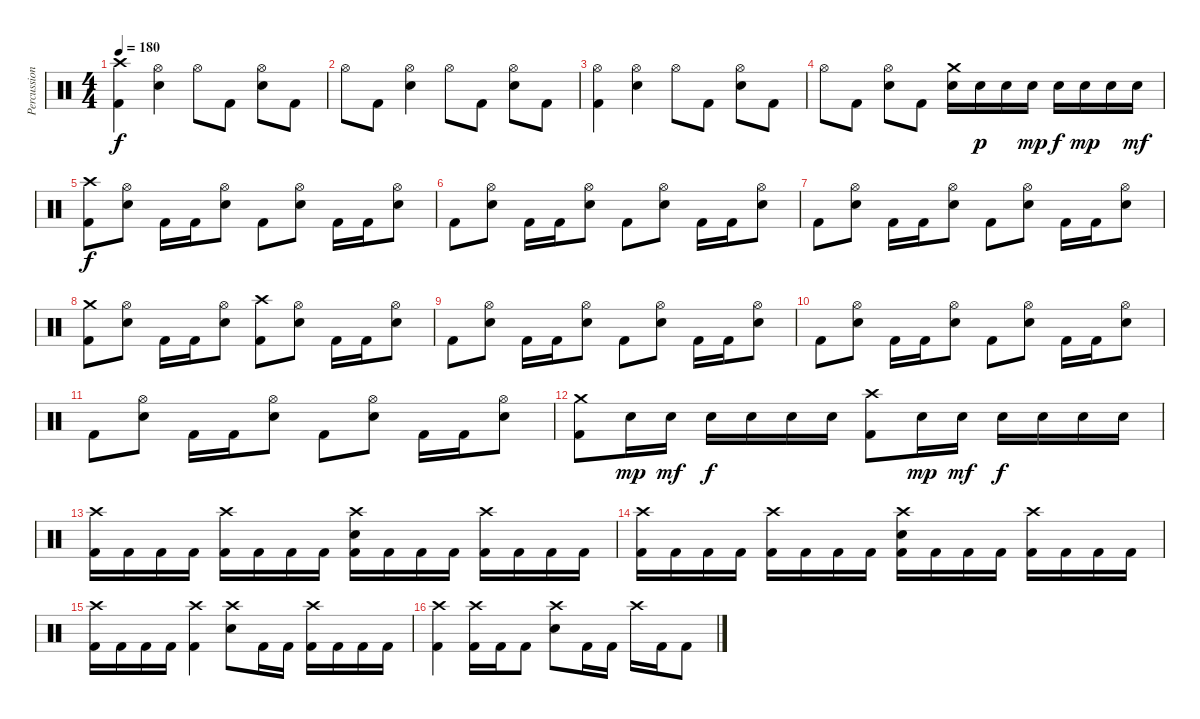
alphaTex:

\track ("Percussion" "Percussion") {instrument percussion}
\staff {score}
\articulation defaults
\ts (4 4)
\tempo 180
\clef neutral
\ks c
("Crash high (hit)" "Kick (hit) 2").4{dy f} ("Hi-Hat (open)" "Electric Snare (hit)").4 "Hi-Hat (open)".8 "Kick (hit) 2".8 ("Hi-Hat (open)" "Electric Snare (hit)").8 "Kick (hit) 2".8 |
"Hi-Hat (open)".8 "Kick (hit) 2".8 ("Hi-Hat (open)" "Electric Snare (hit)").4 "Hi-Hat (open)".8 "Kick (hit) 2".8 ("Hi-Hat (open)" "Electric Snare (hit)").8 "Kick (hit) 2".8 |
("Hi-Hat (open)" "Kick (hit) 2").4 ("Hi-Hat (open)" "Electric Snare (hit)").4 "Hi-Hat (open)".8 "Kick (hit) 2".8 ("Hi-Hat (open)" "Electric Snare (hit)").8 "Kick (hit) 2".8 |
"Hi-Hat (open)".8 "Kick (hit) 2".8 ("Hi-Hat (open)" "Electric Snare (hit)").8 "Kick (hit) 2".8 ("Crash medium (hit)" "Electric Snare (hit)").16 "Electric Snare (hit)".16{dy p} "Electric Snare (hit)".16 "Electric Snare (hit)".16{dy mp} "Electric Snare (hit)".16{dy f} "Electric Snare (hit)".16{dy mp} "Electric Snare (hit)".16 "Electric Snare (hit)".16{dy mf} |
("Crash high (hit)" "Kick (hit) 2").8{dy f} ("Hi-Hat (open)" "Electric Snare (hit)").8 "Kick (hit) 2".16 "Kick (hit) 2".16 ("Hi-Hat (open)" "Electric Snare (hit)").8 "Kick (hit) 2".8 ("Hi-Hat (open)" "Electric Snare (hit)").8 "Kick (hit) 2".16 "Kick (hit) 2".16 ("Hi-Hat (open)" "Electric Snare (hit)").8 |
"Kick (hit) 2".8 ("Hi-Hat (open)" "Electric Snare (hit)").8 "Kick (hit) 2".16 "Kick (hit) 2".16 ("Hi-Hat (open)" "Electric Snare (hit)").8 "Kick (hit) 2".8 ("Hi-Hat (open)" "Electric Snare (hit)").8 "Kick (hit) 2".16 "Kick (hit) 2".16 ("Hi-Hat (open)" "Electric Snare (hit)").8 |
"Kick (hit) 2".8 ("Hi-Hat (open)" "Electric Snare (hit)").8 "Kick (hit) 2".16 "Kick (hit) 2".16 ("Hi-Hat (open)" "Electric Snare (hit)").8 "Kick (hit) 2".8 ("Hi-Hat (open)" "Electric Snare (hit)").8 "Kick (hit) 2".16 "Kick (hit) 2".16 ("Hi-Hat (open)" "Electric Snare (hit)").8 |
("Crash medium (hit)" "Kick (hit) 2").8 ("Hi-Hat (open)" "Electric Snare (hit)").8 "Kick (hit) 2".16 "Kick (hit) 2".16 ("Hi-Hat (open)" "Electric Snare (hit)").8 ("Crash high (hit)" "Kick (hit) 2").8 ("Hi-Hat (open)" "Electric Snare (hit)").8 "Kick (hit) 2".16 "Kick (hit) 2".16 ("Hi-Hat (open)" "Electric Snare (hit)").8 |
"Kick (hit) 2".8 ("Hi-Hat (open)" "Electric Snare (hit)").8 "Kick (hit) 2".16 "Kick (hit) 2".16 ("Hi-Hat (open)" "Electric Snare (hit)").8 "Kick (hit) 2".8 ("Hi-Hat (open)" "Electric Snare (hit)").8 "Kick (hit) 2".16 "Kick (hit) 2".16 ("Hi-Hat (open)" "Electric Snare (hit)").8 |
"Kick (hit) 2".8 ("Hi-Hat (open)" "Electric Snare (hit)").8 "Kick (hit) 2".16 "Kick (hit) 2".16 ("Hi-Hat (open)" "Electric Snare (hit)").8 "Kick (hit) 2".8 ("Hi-Hat (open)" "Electric Snare (hit)").8 "Kick (hit) 2".16 "Kick (hit) 2".16 ("Hi-Hat (open)" "Electric Snare (hit)").8 |
"Kick (hit) 2".8 ("Hi-Hat (open)" "Electric Snare (hit)").8 "Kick (hit) 2".16 "Kick (hit) 2".16 ("Hi-Hat (open)" "Electric Snare (hit)").8 "Kick (hit) 2".8 ("Hi-Hat (open)" "Electric Snare (hit)").8 "Kick (hit) 2".16 "Kick (hit) 2".16 ("Hi-Hat (open)" "Electric Snare (hit)").8 |
("Crash medium (hit)" "Kick (hit) 2").8 "Electric Snare (hit)".16{dy mp} "Electric Snare (hit)".16{dy mf} "Electric Snare (hit)".16{dy f} "Electric Snare (hit)".16 "Electric Snare (hit)".16 "Electric Snare (hit)".16 ("Crash high (hit)" "Kick (hit) 2").8 "Electric Snare (hit)".16{dy mp} "Electric Snare (hit)".16{dy mf} "Electric Snare (hit)".16{dy f} "Electric Snare (hit)".16 "Electric Snare (hit)".16 "Electric Snare (hit)".16 |
("Crash high (hit)" "Kick (hit) 2").16 "Kick (hit) 2".16 "Kick (hit) 2".16 "Kick (hit) 2".16 ("Crash high (hit)" "Kick (hit) 2").16 "Kick (hit) 2".16 "Kick (hit) 2".16 "Kick (hit) 2".16 ("Crash high (hit)" "Electric Snare (hit)" "Kick (hit) 2").16 "Kick (hit) 2".16 "Kick (hit) 2".16 "Kick (hit) 2".16 ("Crash high (hit)" "Kick (hit) 2").16 "Kick (hit) 2".16 "Kick (hit) 2".16 "Kick (hit) 2".16 |
("Crash high (hit)" "Kick (hit) 2").16 "Kick (hit) 2".16 "Kick (hit) 2".16 "Kick (hit) 2".16 ("Crash high (hit)" "Kick (hit) 2").16 "Kick (hit) 2".16 "Kick (hit) 2".16 "Kick (hit) 2".16 ("Crash high (hit)" "Electric Snare (hit)" "Kick (hit) 2").16 "Kick (hit) 2".16 "Kick (hit) 2".16 "Kick (hit) 2".16 ("Crash high (hit)" "Kick (hit) 2").16 "Kick (hit) 2".16 "Kick (hit) 2".16 "Kick (hit) 2".16 |
("Crash high (hit)" "Kick (hit) 2").16 "Kick (hit) 2".16 "Kick (hit) 2".16 "Kick (hit) 2".16 ("Crash high (hit)" "Kick (hit) 2").4 ("Crash high (hit)" "Electric Snare (hit)").8 "Kick (hit) 2".16 "Kick (hit) 2".16 ("Crash high (hit)" "Kick (hit) 2").16 "Kick (hit) 2".16 "Kick (hit) 2".16 "Kick (hit) 2".16 |
("Crash high (hit)" "Kick (hit) 2").4 ("Crash high (hit)" "Kick (hit) 2").16 "Kick (hit) 2".16 "Kick (hit) 2".8 ("Crash high (hit)" "Electric Snare (hit)").8 "Kick (hit) 2".16 "Kick (hit) 2".16 "Crash high (hit)".16 "Kick (hit) 2".16 "Kick (hit) 2".8
